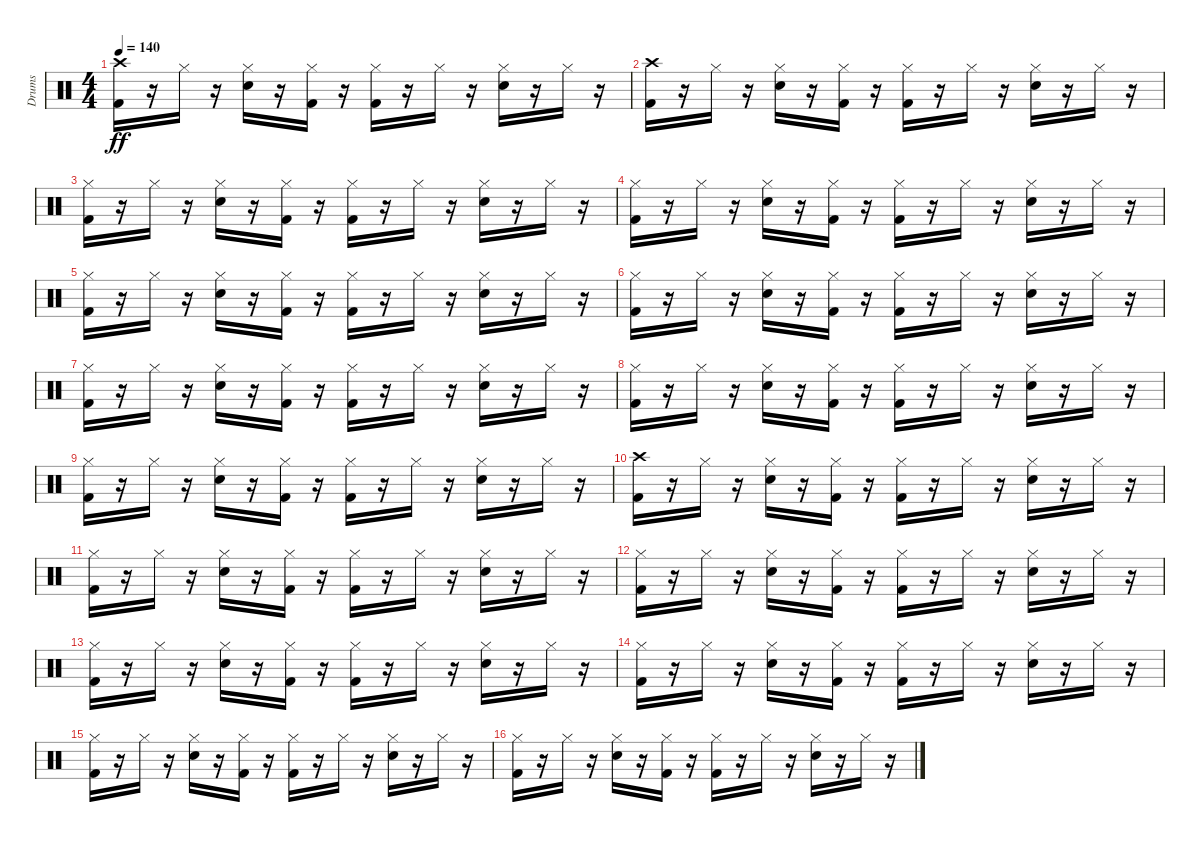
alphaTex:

\track ("Drums" "Drums") {instrument percussion}
\staff {score}
\articulation defaults
\ts (4 4)
\tempo 140
\clef neutral
\ks c
("Crash high (hit)" "Kick (hit) 2").16{dy ff} r.16 "Hi-Hat (closed)".16 r.16 ("Hi-Hat (closed)" "Snare (hit) 2").16 r.16 ("Hi-Hat (closed)" "Kick (hit) 2").16 r.16 ("Hi-Hat (closed)" "Kick (hit) 2").16 r.16 "Hi-Hat (closed)".16 r.16 ("Hi-Hat (closed)" "Snare (hit) 2").16 r.16 "Hi-Hat (closed)".16 r.16 |
("Crash high (hit)" "Kick (hit) 2").16 r.16 "Hi-Hat (closed)".16 r.16 ("Hi-Hat (closed)" "Snare (hit) 2").16 r.16 ("Hi-Hat (closed)" "Kick (hit) 2").16 r.16 ("Hi-Hat (closed)" "Kick (hit) 2").16 r.16 "Hi-Hat (closed)".16 r.16 ("Hi-Hat (closed)" "Snare (hit) 2").16 r.16 "Hi-Hat (closed)".16 r.16 |
("Hi-Hat (closed)" "Kick (hit) 2").16 r.16 "Hi-Hat (closed)".16 r.16 ("Hi-Hat (closed)" "Snare (hit) 2").16 r.16 ("Hi-Hat (closed)" "Kick (hit) 2").16 r.16 ("Hi-Hat (closed)" "Kick (hit) 2").16 r.16 "Hi-Hat (closed)".16 r.16 ("Hi-Hat (closed)" "Snare (hit) 2").16 r.16 "Hi-Hat (closed)".16 r.16 |
("Hi-Hat (closed)" "Kick (hit) 2").16 r.16 "Hi-Hat (closed)".16 r.16 ("Hi-Hat (closed)" "Snare (hit) 2").16 r.16 ("Hi-Hat (closed)" "Kick (hit) 2").16 r.16 ("Hi-Hat (closed)" "Kick (hit) 2").16 r.16 "Hi-Hat (closed)".16 r.16 ("Hi-Hat (closed)" "Snare (hit) 2").16 r.16 "Hi-Hat (closed)".16 r.16 |
("Hi-Hat (closed)" "Kick (hit) 2").16 r.16 "Hi-Hat (closed)".16 r.16 ("Hi-Hat (closed)" "Snare (hit) 2").16 r.16 ("Hi-Hat (closed)" "Kick (hit) 2").16 r.16 ("Hi-Hat (closed)" "Kick (hit) 2").16 r.16 "Hi-Hat (closed)".16 r.16 ("Hi-Hat (closed)" "Snare (hit) 2").16 r.16 "Hi-Hat (closed)".16 r.16 |
("Hi-Hat (closed)" "Kick (hit) 2").16 r.16 "Hi-Hat (closed)".16 r.16 ("Hi-Hat (closed)" "Snare (hit) 2").16 r.16 ("Hi-Hat (closed)" "Kick (hit) 2").16 r.16 ("Hi-Hat (closed)" "Kick (hit) 2").16 r.16 "Hi-Hat (closed)".16 r.16 ("Hi-Hat (closed)" "Snare (hit) 2").16 r.16 "Hi-Hat (closed)".16 r.16 |
("Hi-Hat (closed)" "Kick (hit) 2").16 r.16 "Hi-Hat (closed)".16 r.16 ("Hi-Hat (closed)" "Snare (hit) 2").16 r.16 ("Hi-Hat (closed)" "Kick (hit) 2").16 r.16 ("Hi-Hat (closed)" "Kick (hit) 2").16 r.16 "Hi-Hat (closed)".16 r.16 ("Hi-Hat (closed)" "Snare (hit) 2").16 r.16 "Hi-Hat (closed)".16 r.16 |
("Hi-Hat (closed)" "Kick (hit) 2").16 r.16 "Hi-Hat (closed)".16 r.16 ("Hi-Hat (closed)" "Snare (hit) 2").16 r.16 ("Hi-Hat (closed)" "Kick (hit) 2").16 r.16 ("Hi-Hat (closed)" "Kick (hit) 2").16 r.16 "Hi-Hat (closed)".16 r.16 ("Hi-Hat (closed)" "Snare (hit) 2").16 r.16 "Hi-Hat (closed)".16 r.16 |
("Hi-Hat (closed)" "Kick (hit) 2").16 r.16 "Hi-Hat (closed)".16 r.16 ("Hi-Hat (closed)" "Snare (hit) 2").16 r.16 ("Hi-Hat (closed)" "Kick (hit) 2").16 r.16 ("Hi-Hat (closed)" "Kick (hit) 2").16 r.16 "Hi-Hat (closed)".16 r.16 ("Hi-Hat (closed)" "Snare (hit) 2").16 r.16 "Hi-Hat (closed)".16 r.16 |
("Crash high (hit)" "Kick (hit) 2").16 r.16 "Hi-Hat (closed)".16 r.16 ("Hi-Hat (closed)" "Snare (hit) 2").16 r.16 ("Hi-Hat (closed)" "Kick (hit) 2").16 r.16 ("Hi-Hat (closed)" "Kick (hit) 2").16 r.16 "Hi-Hat (closed)".16 r.16 ("Hi-Hat (closed)" "Snare (hit) 2").16 r.16 "Hi-Hat (closed)".16 r.16 |
("Hi-Hat (closed)" "Kick (hit) 2").16 r.16 "Hi-Hat (closed)".16 r.16 ("Hi-Hat (closed)" "Snare (hit) 2").16 r.16 ("Hi-Hat (closed)" "Kick (hit) 2").16 r.16 ("Hi-Hat (closed)" "Kick (hit) 2").16 r.16 "Hi-Hat (closed)".16 r.16 ("Hi-Hat (closed)" "Snare (hit) 2").16 r.16 "Hi-Hat (closed)".16 r.16 |
("Hi-Hat (closed)" "Kick (hit) 2").16 r.16 "Hi-Hat (closed)".16 r.16 ("Hi-Hat (closed)" "Snare (hit) 2").16 r.16 ("Hi-Hat (closed)" "Kick (hit) 2").16 r.16 ("Hi-Hat (closed)" "Kick (hit) 2").16 r.16 "Hi-Hat (closed)".16 r.16 ("Hi-Hat (closed)" "Snare (hit) 2").16 r.16 "Hi-Hat (closed)".16 r.16 |
("Hi-Hat (closed)" "Kick (hit) 2").16 r.16 "Hi-Hat (closed)".16 r.16 ("Hi-Hat (closed)" "Snare (hit) 2").16 r.16 ("Hi-Hat (closed)" "Kick (hit) 2").16 r.16 ("Hi-Hat (closed)" "Kick (hit) 2").16 r.16 "Hi-Hat (closed)".16 r.16 ("Hi-Hat (closed)" "Snare (hit) 2").16 r.16 "Hi-Hat (closed)".16 r.16 |
("Hi-Hat (closed)" "Kick (hit) 2").16 r.16 "Hi-Hat (closed)".16 r.16 ("Hi-Hat (closed)" "Snare (hit) 2").16 r.16 ("Hi-Hat (closed)" "Kick (hit) 2").16 r.16 ("Hi-Hat (closed)" "Kick (hit) 2").16 r.16 "Hi-Hat (closed)".16 r.16 ("Hi-Hat (closed)" "Snare (hit) 2").16 r.16 "Hi-Hat (closed)".16 r.16 |
("Hi-Hat (closed)" "Kick (hit) 2").16 r.16 "Hi-Hat (closed)".16 r.16 ("Hi-Hat (closed)" "Snare (hit) 2").16 r.16 ("Hi-Hat (closed)" "Kick (hit) 2").16 r.16 ("Hi-Hat (closed)" "Kick (hit) 2").16 r.16 "Hi-Hat (closed)".16 r.16 ("Hi-Hat (closed)" "Snare (hit) 2").16 r.16 "Hi-Hat (closed)".16 r.16 |
("Hi-Hat (closed)" "Kick (hit) 2").16 r.16 "Hi-Hat (closed)".16 r.16 ("Hi-Hat (closed)" "Snare (hit) 2").16 r.16 ("Hi-Hat (closed)" "Kick (hit) 2").16 r.16 ("Hi-Hat (closed)" "Kick (hit) 2").16 r.16 "Hi-Hat (closed)".16 r.16 ("Hi-Hat (closed)" "Snare (hit) 2").16 r.16 "Hi-Hat (closed)".16 r.16
